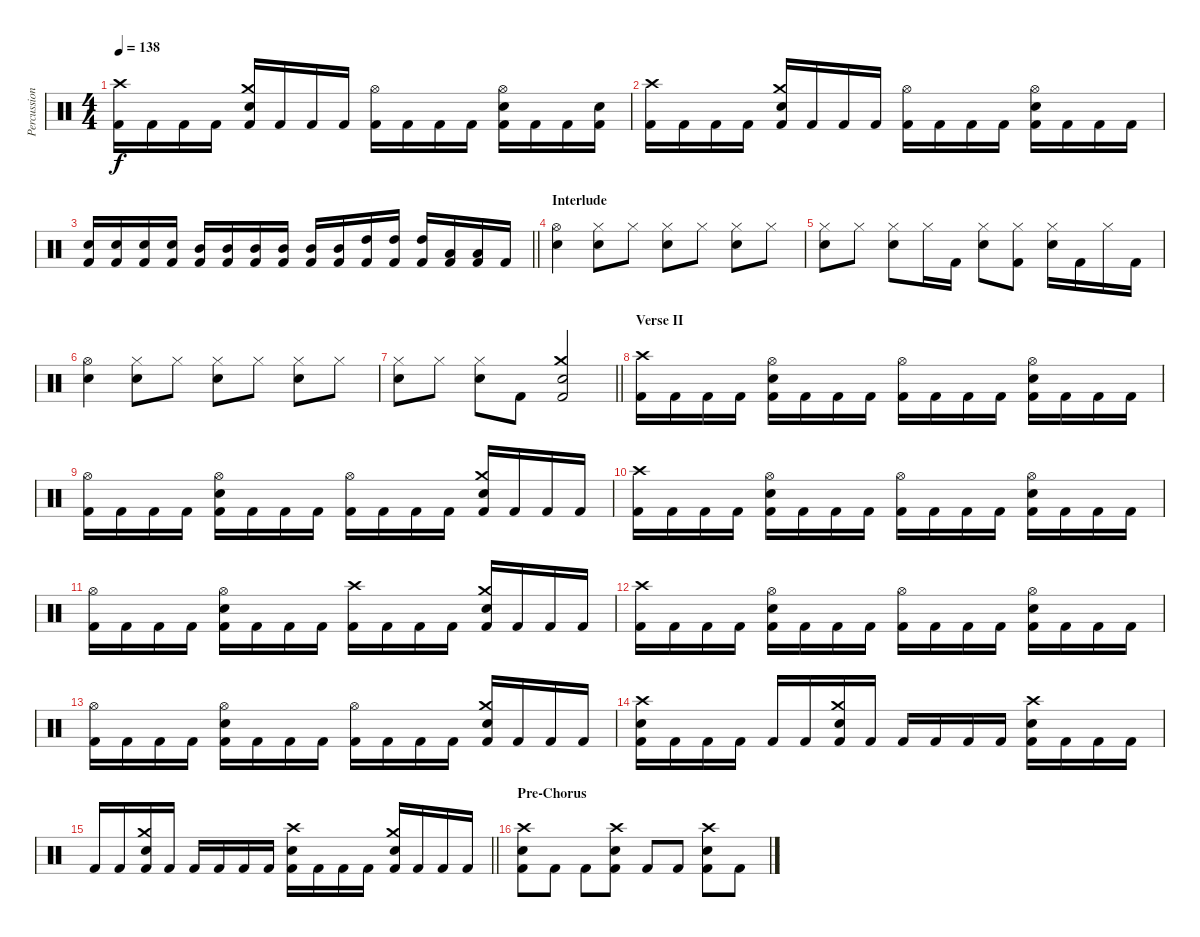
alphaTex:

\track ("Percussion" "Percussion") {instrument percussion}
\staff {score}
\articulation defaults
\ts (4 4)
\tempo 138
\clef neutral
\ks c
("Crash high (hit)" "Kick (hit) 2").16{dy f} "Kick (hit) 2".16 "Kick (hit) 2".16 "Kick (hit) 2".16 ("Crash medium (hit)" "Electric Snare (hit)" "Kick (hit) 2").16 "Kick (hit) 2".16 "Kick (hit) 2".16 "Kick (hit) 2".16 ("Hi-Hat (open)" "Kick (hit) 2").16 "Kick (hit) 2".16 "Kick (hit) 2".16 "Kick (hit) 2".16 ("Hi-Hat (open)" "Electric Snare (hit)" "Kick (hit) 2").16 "Kick (hit) 2".16 "Kick (hit) 2".16 ("Electric Snare (hit)" "Kick (hit) 2").16 |
("Crash high (hit)" "Kick (hit) 2").16 "Kick (hit) 2".16 "Kick (hit) 2".16 "Kick (hit) 2".16 ("Crash medium (hit)" "Electric Snare (hit)" "Kick (hit) 2").16 "Kick (hit) 2".16 "Kick (hit) 2".16 "Kick (hit) 2".16 ("Hi-Hat (open)" "Kick (hit) 2").16 "Kick (hit) 2".16 "Kick (hit) 2".16 "Kick (hit) 2".16 ("Hi-Hat (open)" "Electric Snare (hit)" "Kick (hit) 2").16 "Kick (hit) 2".16 "Kick (hit) 2".16 "Kick (hit) 2".16 |
\barLineRight lightlight
("Electric Snare (hit)" "Kick (hit) 2").16 ("Electric Snare (hit)" "Kick (hit) 2").16 ("Electric Snare (hit)" "Kick (hit) 2").16 ("Electric Snare (hit)" "Kick (hit) 2").16 ("Mid Tom (hit)" "Kick (hit) 2").16 ("Mid Tom (hit)" "Kick (hit) 2").16 ("Mid Tom (hit)" "Kick (hit) 2").16 ("Mid Tom (hit)" "Kick (hit) 2").16 ("Mid Tom (hit)" "Kick (hit) 2").16 ("Mid Tom (hit)" "Kick (hit) 2").16 ("High Tom (hit)" "Kick (hit) 2").16 ("High Tom (hit)" "Kick (hit) 2").16 ("High Tom (hit)" "Kick (hit) 2").16 ("Low Tom (hit)" "Kick (hit) 2").16 ("Low Tom (hit)" "Kick (hit) 2").16 "Kick (hit) 2".16 |
\section ("" "Interlude")
("Hi-Hat (open)" "Electric Snare (hit)").4 ("Hi-Hat (closed)" "Electric Snare (hit)").8 "Hi-Hat (closed)".8 ("Hi-Hat (closed)" "Electric Snare (hit)").8 "Hi-Hat (closed)".8 ("Hi-Hat (closed)" "Electric Snare (hit)").8 "Hi-Hat (closed)".8 |
("Hi-Hat (closed)" "Electric Snare (hit)").8 "Hi-Hat (closed)".8 ("Hi-Hat (closed)" "Electric Snare (hit)").8 "Hi-Hat (closed)".16 "Kick (hit) 2".16 ("Hi-Hat (closed)" "Electric Snare (hit)").8 ("Hi-Hat (closed)" "Kick (hit) 2").8 ("Hi-Hat (closed)" "Electric Snare (hit)").16 "Kick (hit) 2".16 "Hi-Hat (closed)".16 "Kick (hit) 2".16 |
("Hi-Hat (open)" "Electric Snare (hit)").4 ("Hi-Hat (closed)" "Electric Snare (hit)").8 "Hi-Hat (closed)".8 ("Hi-Hat (closed)" "Electric Snare (hit)").8 "Hi-Hat (closed)".8 ("Hi-Hat (closed)" "Electric Snare (hit)").8 "Hi-Hat (closed)".8 |
\barLineRight lightlight
("Hi-Hat (closed)" "Electric Snare (hit)").8 "Hi-Hat (closed)".8 ("Hi-Hat (closed)" "Electric Snare (hit)").8 "Kick (hit) 2".8 ("Crash medium (hit)" "Electric Snare (hit)" "Kick (hit) 2").2 |
\section ("" "Verse II")
("Crash high (hit)" "Kick (hit) 2").16 "Kick (hit) 2".16 "Kick (hit) 2".16 "Kick (hit) 2".16 ("Hi-Hat (open)" "Electric Snare (hit)" "Kick (hit) 2").16 "Kick (hit) 2".16 "Kick (hit) 2".16 "Kick (hit) 2".16 ("Hi-Hat (open)" "Kick (hit) 2").16 "Kick (hit) 2".16 "Kick (hit) 2".16 "Kick (hit) 2".16 ("Hi-Hat (open)" "Electric Snare (hit)" "Kick (hit) 2").16 "Kick (hit) 2".16 "Kick (hit) 2".16 "Kick (hit) 2".16 |
("Hi-Hat (open)" "Kick (hit) 2").16 "Kick (hit) 2".16 "Kick (hit) 2".16 "Kick (hit) 2".16 ("Hi-Hat (open)" "Electric Snare (hit)" "Kick (hit) 2").16 "Kick (hit) 2".16 "Kick (hit) 2".16 "Kick (hit) 2".16 ("Hi-Hat (open)" "Kick (hit) 2").16 "Kick (hit) 2".16 "Kick (hit) 2".16 "Kick (hit) 2".16 ("Crash medium (hit)" "Electric Snare (hit)" "Kick (hit) 2").16 "Kick (hit) 2".16 "Kick (hit) 2".16 "Kick (hit) 2".16 |
("Crash high (hit)" "Kick (hit) 2").16 "Kick (hit) 2".16 "Kick (hit) 2".16 "Kick (hit) 2".16 ("Hi-Hat (open)" "Electric Snare (hit)" "Kick (hit) 2").16 "Kick (hit) 2".16 "Kick (hit) 2".16 "Kick (hit) 2".16 ("Hi-Hat (open)" "Kick (hit) 2").16 "Kick (hit) 2".16 "Kick (hit) 2".16 "Kick (hit) 2".16 ("Hi-Hat (open)" "Electric Snare (hit)" "Kick (hit) 2").16 "Kick (hit) 2".16 "Kick (hit) 2".16 "Kick (hit) 2".16 |
("Hi-Hat (open)" "Kick (hit) 2").16 "Kick (hit) 2".16 "Kick (hit) 2".16 "Kick (hit) 2".16 ("Hi-Hat (open)" "Electric Snare (hit)" "Kick (hit) 2").16 "Kick (hit) 2".16 "Kick (hit) 2".16 "Kick (hit) 2".16 ("Crash high (hit)" "Kick (hit) 2").16 "Kick (hit) 2".16 "Kick (hit) 2".16 "Kick (hit) 2".16 ("Crash medium (hit)" "Electric Snare (hit)" "Kick (hit) 2").16 "Kick (hit) 2".16 "Kick (hit) 2".16 "Kick (hit) 2".16 |
("Crash high (hit)" "Kick (hit) 2").16 "Kick (hit) 2".16 "Kick (hit) 2".16 "Kick (hit) 2".16 ("Hi-Hat (open)" "Electric Snare (hit)" "Kick (hit) 2").16 "Kick (hit) 2".16 "Kick (hit) 2".16 "Kick (hit) 2".16 ("Hi-Hat (open)" "Kick (hit) 2").16 "Kick (hit) 2".16 "Kick (hit) 2".16 "Kick (hit) 2".16 ("Hi-Hat (open)" "Electric Snare (hit)" "Kick (hit) 2").16 "Kick (hit) 2".16 "Kick (hit) 2".16 "Kick (hit) 2".16 |
("Hi-Hat (open)" "Kick (hit) 2").16 "Kick (hit) 2".16 "Kick (hit) 2".16 "Kick (hit) 2".16 ("Hi-Hat (open)" "Electric Snare (hit)" "Kick (hit) 2").16 "Kick (hit) 2".16 "Kick (hit) 2".16 "Kick (hit) 2".16 ("Hi-Hat (open)" "Kick (hit) 2").16 "Kick (hit) 2".16 "Kick (hit) 2".16 "Kick (hit) 2".16 ("Crash medium (hit)" "Electric Snare (hit)" "Kick (hit) 2").16 "Kick (hit) 2".16 "Kick (hit) 2".16 "Kick (hit) 2".16 |
("Crash high (hit)" "Electric Snare (hit)" "Kick (hit) 2").16 "Kick (hit) 2".16 "Kick (hit) 2".16 "Kick (hit) 2".16 "Kick (hit) 2".16 "Kick (hit) 2".16 ("Crash medium (hit)" "Electric Snare (hit)" "Kick (hit) 2").16 "Kick (hit) 2".16 "Kick (hit) 2".16 "Kick (hit) 2".16 "Kick (hit) 2".16 "Kick (hit) 2".16 ("Crash high (hit)" "Electric Snare (hit)" "Kick (hit) 2").16 "Kick (hit) 2".16 "Kick (hit) 2".16 "Kick (hit) 2".16 |
\barLineRight lightlight "Kick (hit) 2".16 "Kick (hit) 2".16
("Crash medium (hit)" "Electric Snare (hit)" "Kick (hit) 2").16 "Kick (hit) 2".16 "Kick (hit) 2".16 "Kick (hit) 2".16 "Kick (hit) 2".16 "Kick (hit) 2".16 ("Crash high (hit)" "Electric Snare (hit)" "Kick (hit) 2").16 "Kick (hit) 2".16 "Kick (hit) 2".16 "Kick (hit) 2".16 ("Crash medium (hit)" "Electric Snare (hit)" "Kick (hit) 2").16 "Kick (hit) 2".16 "Kick (hit) 2".16 "Kick (hit) 2".16 |
\section ("" "Pre-Chorus")
("Crash high (hit)" "Electric Snare (hit)" "Kick (hit) 2").8 "Kick (hit) 2".8 "Kick (hit) 2".8 ("Crash high (hit)" "Electric Snare (hit)" "Kick (hit) 2").8 "Kick (hit) 2".8 "Kick (hit) 2".8 ("Crash high (hit)" "Electric Snare (hit)" "Kick (hit) 2").8 "Kick (hit) 2".8
